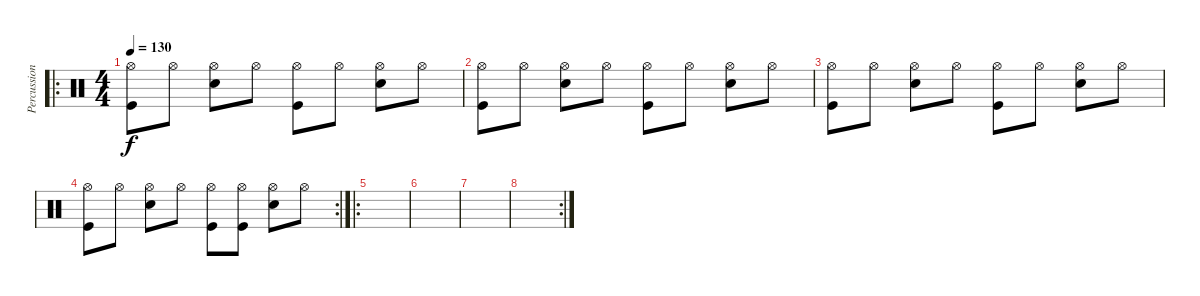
\track ("Percussion" "Percussion") {instrument percussion}
\staff {score}
\articulation defaults
\ro
\ts (4 4)
\tempo 130
\clef neutral
\ks c
("Hi-Hat (open)" "Kick (hit)").8{dy f} "Hi-Hat (open)".8 ("Hi-Hat (open)" "Snare (hit) 2").8 "Hi-Hat (open)".8 ("Hi-Hat (open)" "Kick (hit)").8 "Hi-Hat (open)".8 ("Hi-Hat (open)" "Snare (hit) 2").8 "Hi-Hat (open)".8 |
("Hi-Hat (open)" "Kick (hit)").8 "Hi-Hat (open)".8 ("Hi-Hat (open)" "Snare (hit) 2").8 "Hi-Hat (open)".8 ("Hi-Hat (open)" "Kick (hit)").8 "Hi-Hat (open)".8 ("Hi-Hat (open)" "Snare (hit) 2").8 "Hi-Hat (open)".8 |
("Hi-Hat (open)" "Kick (hit)").8 "Hi-Hat (open)".8 ("Hi-Hat (open)" "Snare (hit) 2").8 "Hi-Hat (open)".8 ("Hi-Hat (open)" "Kick (hit)").8 "Hi-Hat (open)".8 ("Hi-Hat (open)" "Snare (hit) 2").8 "Hi-Hat (open)".8 |
\rc 2
("Hi-Hat (open)" "Kick (hit)").8 "Hi-Hat (open)".8 ("Hi-Hat (open)" "Snare (hit) 2").8 "Hi-Hat (open)".8 ("Hi-Hat (open)" "Kick (hit)").8 ("Hi-Hat (open)" "Kick (hit)").8 ("Hi-Hat (open)" "Snare (hit) 2").8 "Hi-Hat (open)".8 |
\ro
|
|
|
\rc 2
